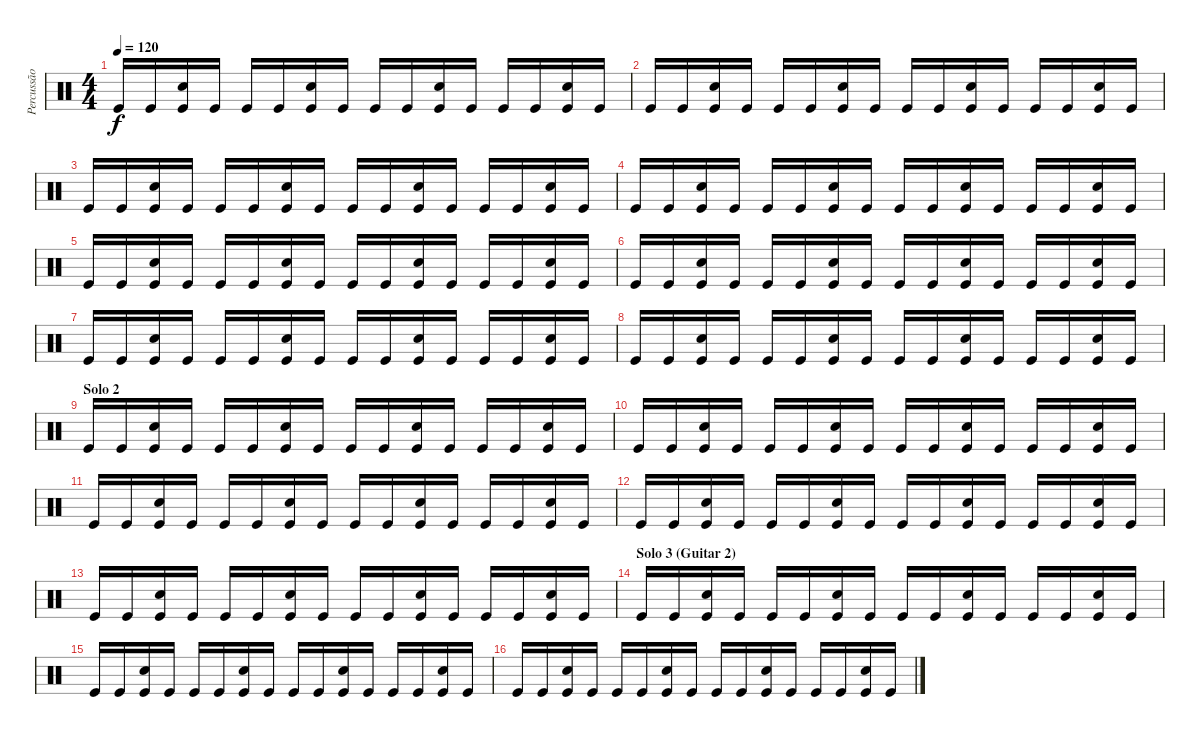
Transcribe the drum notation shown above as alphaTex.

\track ("Percussão" "Percussão") {instrument percussion}
\staff {score}
\articulation defaults
\ts (4 4)
\tempo 120
\clef neutral
\ks c "Kick (hit)".16{dy f} "Kick (hit)".16
("Kick (hit)" "Snare (hit) 2").16 "Kick (hit)".16 "Kick (hit)".16 "Kick (hit)".16 ("Kick (hit)" "Snare (hit) 2").16 "Kick (hit)".16 "Kick (hit)".16 "Kick (hit)".16 ("Kick (hit)" "Snare (hit) 2").16 "Kick (hit)".16 "Kick (hit)".16 "Kick (hit)".16 ("Kick (hit)" "Snare (hit) 2").16 "Kick (hit)".16 |
"Kick (hit)".16 "Kick (hit)".16 ("Kick (hit)" "Snare (hit) 2").16 "Kick (hit)".16 "Kick (hit)".16 "Kick (hit)".16 ("Kick (hit)" "Snare (hit) 2").16 "Kick (hit)".16 "Kick (hit)".16 "Kick (hit)".16 ("Kick (hit)" "Snare (hit) 2").16 "Kick (hit)".16 "Kick (hit)".16 "Kick (hit)".16 ("Kick (hit)" "Snare (hit) 2").16 "Kick (hit)".16 |
"Kick (hit)".16 "Kick (hit)".16 ("Kick (hit)" "Snare (hit) 2").16 "Kick (hit)".16 "Kick (hit)".16 "Kick (hit)".16 ("Kick (hit)" "Snare (hit) 2").16 "Kick (hit)".16 "Kick (hit)".16 "Kick (hit)".16 ("Kick (hit)" "Snare (hit) 2").16 "Kick (hit)".16 "Kick (hit)".16 "Kick (hit)".16 ("Kick (hit)" "Snare (hit) 2").16 "Kick (hit)".16 |
"Kick (hit)".16 "Kick (hit)".16 ("Kick (hit)" "Snare (hit) 2").16 "Kick (hit)".16 "Kick (hit)".16 "Kick (hit)".16 ("Kick (hit)" "Snare (hit) 2").16 "Kick (hit)".16 "Kick (hit)".16 "Kick (hit)".16 ("Kick (hit)" "Snare (hit) 2").16 "Kick (hit)".16 "Kick (hit)".16 "Kick (hit)".16 ("Kick (hit)" "Snare (hit) 2").16 "Kick (hit)".16 |
"Kick (hit)".16 "Kick (hit)".16 ("Kick (hit)" "Snare (hit) 2").16 "Kick (hit)".16 "Kick (hit)".16 "Kick (hit)".16 ("Kick (hit)" "Snare (hit) 2").16 "Kick (hit)".16 "Kick (hit)".16 "Kick (hit)".16 ("Kick (hit)" "Snare (hit) 2").16 "Kick (hit)".16 "Kick (hit)".16 "Kick (hit)".16 ("Kick (hit)" "Snare (hit) 2").16 "Kick (hit)".16 |
"Kick (hit)".16 "Kick (hit)".16 ("Kick (hit)" "Snare (hit) 2").16 "Kick (hit)".16 "Kick (hit)".16 "Kick (hit)".16 ("Kick (hit)" "Snare (hit) 2").16 "Kick (hit)".16 "Kick (hit)".16 "Kick (hit)".16 ("Kick (hit)" "Snare (hit) 2").16 "Kick (hit)".16 "Kick (hit)".16 "Kick (hit)".16 ("Kick (hit)" "Snare (hit) 2").16 "Kick (hit)".16 |
"Kick (hit)".16 "Kick (hit)".16 ("Kick (hit)" "Snare (hit) 2").16 "Kick (hit)".16 "Kick (hit)".16 "Kick (hit)".16 ("Kick (hit)" "Snare (hit) 2").16 "Kick (hit)".16 "Kick (hit)".16 "Kick (hit)".16 ("Kick (hit)" "Snare (hit) 2").16 "Kick (hit)".16 "Kick (hit)".16 "Kick (hit)".16 ("Kick (hit)" "Snare (hit) 2").16 "Kick (hit)".16 |
"Kick (hit)".16 "Kick (hit)".16 ("Kick (hit)" "Snare (hit) 2").16 "Kick (hit)".16 "Kick (hit)".16 "Kick (hit)".16 ("Kick (hit)" "Snare (hit) 2").16 "Kick (hit)".16 "Kick (hit)".16 "Kick (hit)".16 ("Kick (hit)" "Snare (hit) 2").16 "Kick (hit)".16 "Kick (hit)".16 "Kick (hit)".16 ("Kick (hit)" "Snare (hit) 2").16 "Kick (hit)".16 |
\section ("" "Solo 2")
"Kick (hit)".16 "Kick (hit)".16 ("Kick (hit)" "Snare (hit) 2").16 "Kick (hit)".16 "Kick (hit)".16 "Kick (hit)".16 ("Kick (hit)" "Snare (hit) 2").16 "Kick (hit)".16 "Kick (hit)".16 "Kick (hit)".16 ("Kick (hit)" "Snare (hit) 2").16 "Kick (hit)".16 "Kick (hit)".16 "Kick (hit)".16 ("Kick (hit)" "Snare (hit) 2").16 "Kick (hit)".16 |
"Kick (hit)".16 "Kick (hit)".16 ("Kick (hit)" "Snare (hit) 2").16 "Kick (hit)".16 "Kick (hit)".16 "Kick (hit)".16 ("Kick (hit)" "Snare (hit) 2").16 "Kick (hit)".16 "Kick (hit)".16 "Kick (hit)".16 ("Kick (hit)" "Snare (hit) 2").16 "Kick (hit)".16 "Kick (hit)".16 "Kick (hit)".16 ("Kick (hit)" "Snare (hit) 2").16 "Kick (hit)".16 |
"Kick (hit)".16 "Kick (hit)".16 ("Kick (hit)" "Snare (hit) 2").16 "Kick (hit)".16 "Kick (hit)".16 "Kick (hit)".16 ("Kick (hit)" "Snare (hit) 2").16 "Kick (hit)".16 "Kick (hit)".16 "Kick (hit)".16 ("Kick (hit)" "Snare (hit) 2").16 "Kick (hit)".16 "Kick (hit)".16 "Kick (hit)".16 ("Kick (hit)" "Snare (hit) 2").16 "Kick (hit)".16 |
"Kick (hit)".16 "Kick (hit)".16 ("Kick (hit)" "Snare (hit) 2").16 "Kick (hit)".16 "Kick (hit)".16 "Kick (hit)".16 ("Kick (hit)" "Snare (hit) 2").16 "Kick (hit)".16 "Kick (hit)".16 "Kick (hit)".16 ("Kick (hit)" "Snare (hit) 2").16 "Kick (hit)".16 "Kick (hit)".16 "Kick (hit)".16 ("Kick (hit)" "Snare (hit) 2").16 "Kick (hit)".16 |
"Kick (hit)".16 "Kick (hit)".16 ("Kick (hit)" "Snare (hit) 2").16 "Kick (hit)".16 "Kick (hit)".16 "Kick (hit)".16 ("Kick (hit)" "Snare (hit) 2").16 "Kick (hit)".16 "Kick (hit)".16 "Kick (hit)".16 ("Kick (hit)" "Snare (hit) 2").16 "Kick (hit)".16 "Kick (hit)".16 "Kick (hit)".16 ("Kick (hit)" "Snare (hit) 2").16 "Kick (hit)".16 |
\section ("" "Solo 3 (Guitar 2)")
"Kick (hit)".16 "Kick (hit)".16 ("Kick (hit)" "Snare (hit) 2").16 "Kick (hit)".16 "Kick (hit)".16 "Kick (hit)".16 ("Kick (hit)" "Snare (hit) 2").16 "Kick (hit)".16 "Kick (hit)".16 "Kick (hit)".16 ("Kick (hit)" "Snare (hit) 2").16 "Kick (hit)".16 "Kick (hit)".16 "Kick (hit)".16 ("Kick (hit)" "Snare (hit) 2").16 "Kick (hit)".16 |
"Kick (hit)".16 "Kick (hit)".16 ("Kick (hit)" "Snare (hit) 2").16 "Kick (hit)".16 "Kick (hit)".16 "Kick (hit)".16 ("Kick (hit)" "Snare (hit) 2").16 "Kick (hit)".16 "Kick (hit)".16 "Kick (hit)".16 ("Kick (hit)" "Snare (hit) 2").16 "Kick (hit)".16 "Kick (hit)".16 "Kick (hit)".16 ("Kick (hit)" "Snare (hit) 2").16 "Kick (hit)".16 |
"Kick (hit)".16 "Kick (hit)".16 ("Kick (hit)" "Snare (hit) 2").16 "Kick (hit)".16 "Kick (hit)".16 "Kick (hit)".16 ("Kick (hit)" "Snare (hit) 2").16 "Kick (hit)".16 "Kick (hit)".16 "Kick (hit)".16 ("Kick (hit)" "Snare (hit) 2").16 "Kick (hit)".16 "Kick (hit)".16 "Kick (hit)".16 ("Kick (hit)" "Snare (hit) 2").16 "Kick (hit)".16
